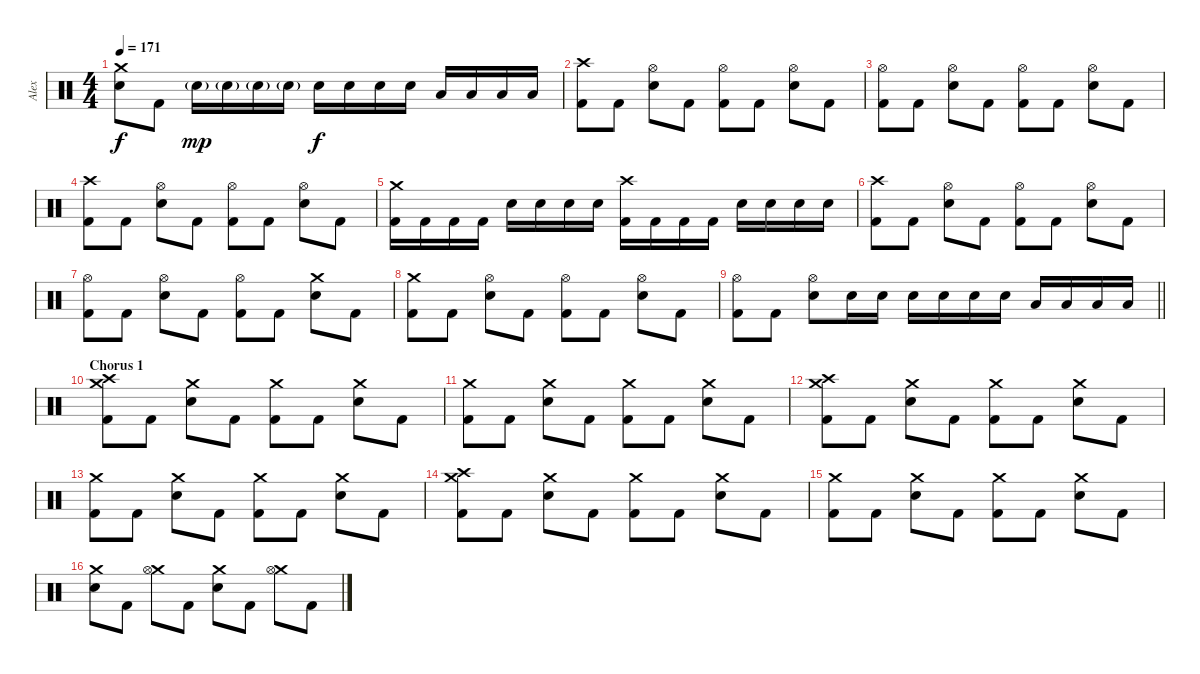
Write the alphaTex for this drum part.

\track ("Alex" "Alex") {instrument percussion}
\staff
\articulation defaults
\ts (4 4)
\tempo 171
\clef neutral
\ks c
("Crash medium (hit)" "Electric Snare (hit)").8{dy f} "Kick (hit) 2".8 "Electric Snare (hit)"{g}.16{dy mp} "Electric Snare (hit)"{g}.16 "Electric Snare (hit)"{g}.16 "Electric Snare (hit)"{g}.16 "Electric Snare (hit)".16{dy f} "Electric Snare (hit)".16 "Electric Snare (hit)".16 "Electric Snare (hit)".16 "Low Tom (hit)".16 "Low Tom (hit)".16 "Low Tom (hit)".16 "Low Tom (hit)".16 |
("Crash high (hit)" "Kick (hit) 2").8 "Kick (hit) 2".8 ("Hi-Hat (open)" "Electric Snare (hit)").8 "Kick (hit) 2".8 ("Hi-Hat (open)" "Kick (hit) 2").8 "Kick (hit) 2".8 ("Hi-Hat (open)" "Electric Snare (hit)").8 "Kick (hit) 2".8 |
("Hi-Hat (open)" "Kick (hit) 2").8 "Kick (hit) 2".8 ("Hi-Hat (open)" "Electric Snare (hit)").8 "Kick (hit) 2".8 ("Hi-Hat (open)" "Kick (hit) 2").8 "Kick (hit) 2".8 ("Hi-Hat (open)" "Electric Snare (hit)").8 "Kick (hit) 2".8 |
("Crash high (hit)" "Kick (hit) 2").8 "Kick (hit) 2".8 ("Hi-Hat (open)" "Electric Snare (hit)").8 "Kick (hit) 2".8 ("Hi-Hat (open)" "Kick (hit) 2").8 "Kick (hit) 2".8 ("Hi-Hat (open)" "Electric Snare (hit)").8 "Kick (hit) 2".8 |
("Crash medium (hit)" "Kick (hit) 2").16 "Kick (hit) 2".16 "Kick (hit) 2".16 "Kick (hit) 2".16 "Electric Snare (hit)".16 "Electric Snare (hit)".16 "Electric Snare (hit)".16 "Electric Snare (hit)".16 ("Crash high (hit)" "Kick (hit) 2").16 "Kick (hit) 2".16 "Kick (hit) 2".16 "Kick (hit) 2".16 "Electric Snare (hit)".16 "Electric Snare (hit)".16 "Electric Snare (hit)".16 "Electric Snare (hit)".16 |
("Crash high (hit)" "Kick (hit) 2").8 "Kick (hit) 2".8 ("Hi-Hat (open)" "Electric Snare (hit)").8 "Kick (hit) 2".8 ("Hi-Hat (open)" "Kick (hit) 2").8 "Kick (hit) 2".8 ("Hi-Hat (open)" "Electric Snare (hit)").8 "Kick (hit) 2".8 |
("Hi-Hat (open)" "Kick (hit) 2").8 "Kick (hit) 2".8 ("Hi-Hat (open)" "Electric Snare (hit)").8 "Kick (hit) 2".8 ("Hi-Hat (open)" "Kick (hit) 2").8 "Kick (hit) 2".8 ("Crash medium (hit)" "Electric Snare (hit)").8 "Kick (hit) 2".8 |
("Crash medium (hit)" "Kick (hit) 2").8 "Kick (hit) 2".8 ("Hi-Hat (open)" "Electric Snare (hit)").8 "Kick (hit) 2".8 ("Hi-Hat (open)" "Kick (hit) 2").8 "Kick (hit) 2".8 ("Hi-Hat (open)" "Electric Snare (hit)").8 "Kick (hit) 2".8 |
\barLineRight lightlight
("Hi-Hat (open)" "Kick (hit) 2").8 "Kick (hit) 2".8 ("Hi-Hat (open)" "Electric Snare (hit)").8 "Electric Snare (hit)".16 "Electric Snare (hit)".16 "Electric Snare (hit)".16 "Electric Snare (hit)".16 "Electric Snare (hit)".16 "Electric Snare (hit)".16 "Low Tom (hit)".16 "Low Tom (hit)".16 "Low Tom (hit)".16 "Low Tom (hit)".16 |
\section ("" "Chorus 1")
("Crash medium (hit)" "Crash high (hit)" "Kick (hit) 2").8 "Kick (hit) 2".8 ("Crash medium (hit)" "Electric Snare (hit)").8 "Kick (hit) 2".8 ("Crash medium (hit)" "Kick (hit) 2").8 "Kick (hit) 2".8 ("Crash medium (hit)" "Electric Snare (hit)").8 "Kick (hit) 2".8 |
("Crash medium (hit)" "Kick (hit) 2").8 "Kick (hit) 2".8 ("Crash medium (hit)" "Electric Snare (hit)").8 "Kick (hit) 2".8 ("Crash medium (hit)" "Kick (hit) 2").8 "Kick (hit) 2".8 ("Crash medium (hit)" "Electric Snare (hit)").8 "Kick (hit) 2".8 |
("Crash medium (hit)" "Crash high (hit)" "Kick (hit) 2").8 "Kick (hit) 2".8 ("Crash medium (hit)" "Electric Snare (hit)").8 "Kick (hit) 2".8 ("Crash medium (hit)" "Kick (hit) 2").8 "Kick (hit) 2".8 ("Crash medium (hit)" "Electric Snare (hit)").8 "Kick (hit) 2".8 |
("Crash medium (hit)" "Kick (hit) 2").8 "Kick (hit) 2".8 ("Crash medium (hit)" "Electric Snare (hit)").8 "Kick (hit) 2".8 ("Crash medium (hit)" "Kick (hit) 2").8 "Kick (hit) 2".8 ("Crash medium (hit)" "Electric Snare (hit)").8 "Kick (hit) 2".8 |
("Crash medium (hit)" "Crash high (hit)" "Kick (hit) 2").8 "Kick (hit) 2".8 ("Crash medium (hit)" "Electric Snare (hit)").8 "Kick (hit) 2".8 ("Crash medium (hit)" "Kick (hit) 2").8 "Kick (hit) 2".8 ("Crash medium (hit)" "Electric Snare (hit)").8 "Kick (hit) 2".8 |
("Crash medium (hit)" "Kick (hit) 2").8 "Kick (hit) 2".8 ("Crash medium (hit)" "Electric Snare (hit)").8 "Kick (hit) 2".8 ("Crash medium (hit)" "Kick (hit) 2").8 "Kick (hit) 2".8 ("Crash medium (hit)" "Electric Snare (hit)").8 "Kick (hit) 2".8 |
("Crash medium (hit)" "Electric Snare (hit)").8 "Kick (hit) 2".8 ("Crash medium (hit)" "Hi-Hat (open)").8 "Kick (hit) 2".8 ("Crash medium (hit)" "Electric Snare (hit)").8 "Kick (hit) 2".8 ("Crash medium (hit)" "Hi-Hat (open)").8 "Kick (hit) 2".8
